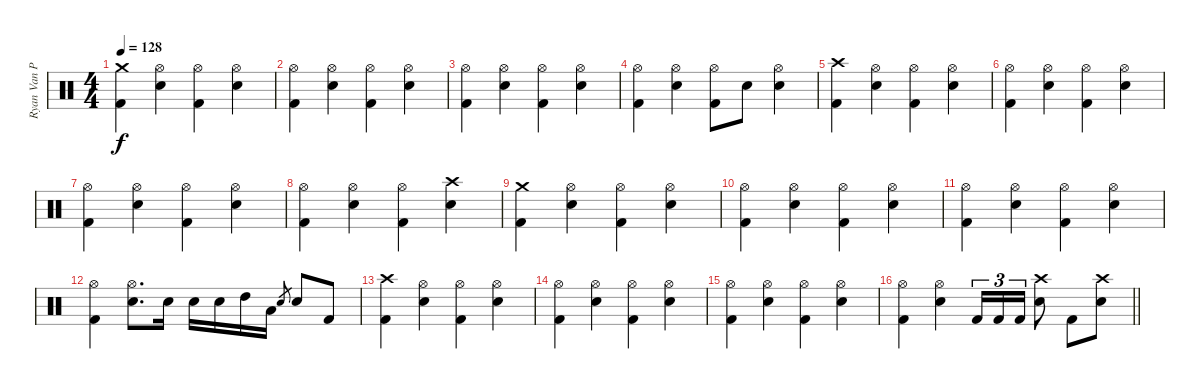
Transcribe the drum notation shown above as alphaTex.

\track ("Ryan Van Poederooyen" "Ryan Van P") {instrument percussion}
\staff {score}
\articulation defaults
\ts (4 4)
\tempo 128
\clef neutral
\ks c
("Crash medium (hit)" "Kick (hit) 2").4{dy f} ("Hi-Hat (open)" "Electric Snare (hit)").4 ("Hi-Hat (open)" "Kick (hit) 2").4 ("Hi-Hat (open)" "Electric Snare (hit)").4 |
("Hi-Hat (open)" "Kick (hit) 2").4 ("Hi-Hat (open)" "Electric Snare (hit)").4 ("Hi-Hat (open)" "Kick (hit) 2").4 ("Hi-Hat (open)" "Electric Snare (hit)").4 |
("Hi-Hat (open)" "Kick (hit) 2").4 ("Hi-Hat (open)" "Electric Snare (hit)").4 ("Hi-Hat (open)" "Kick (hit) 2").4 ("Hi-Hat (open)" "Electric Snare (hit)").4 |
("Hi-Hat (open)" "Kick (hit) 2").4 ("Hi-Hat (open)" "Electric Snare (hit)").4 ("Hi-Hat (open)" "Kick (hit) 2").8 "Electric Snare (hit)".8 ("Hi-Hat (open)" "Electric Snare (hit)").4 |
("Crash high (hit)" "Kick (hit) 2").4 ("Hi-Hat (open)" "Electric Snare (hit)").4 ("Hi-Hat (open)" "Kick (hit) 2").4 ("Hi-Hat (open)" "Electric Snare (hit)").4 |
("Hi-Hat (open)" "Kick (hit) 2").4 ("Hi-Hat (open)" "Electric Snare (hit)").4 ("Hi-Hat (open)" "Kick (hit) 2").4 ("Hi-Hat (open)" "Electric Snare (hit)").4 |
("Hi-Hat (open)" "Kick (hit) 2").4 ("Hi-Hat (open)" "Electric Snare (hit)").4 ("Hi-Hat (open)" "Kick (hit) 2").4 ("Hi-Hat (open)" "Electric Snare (hit)").4 |
("Hi-Hat (open)" "Kick (hit) 2").4 ("Hi-Hat (open)" "Electric Snare (hit)").4 ("Hi-Hat (open)" "Kick (hit) 2").4 ("Crash high (hit)" "Electric Snare (hit)").4 |
("Crash medium (hit)" "Kick (hit) 2").4 ("Hi-Hat (open)" "Electric Snare (hit)").4 ("Hi-Hat (open)" "Kick (hit) 2").4 ("Hi-Hat (open)" "Electric Snare (hit)").4 |
("Hi-Hat (open)" "Kick (hit) 2").4 ("Hi-Hat (open)" "Electric Snare (hit)").4 ("Hi-Hat (open)" "Kick (hit) 2").4 ("Hi-Hat (open)" "Electric Snare (hit)").4 |
("Hi-Hat (open)" "Kick (hit) 2").4 ("Hi-Hat (open)" "Electric Snare (hit)").4 ("Hi-Hat (open)" "Kick (hit) 2").4 ("Hi-Hat (open)" "Electric Snare (hit)").4 |
("Hi-Hat (open)" "Kick (hit) 2").4 ("Hi-Hat (open)" "Electric Snare (hit)").8{d} "Electric Snare (hit)".16 "Electric Snare (hit)".16 "Electric Snare (hit)".16 "High Tom (hit)".16 "Low Tom (hit)".16 "Electric Snare (hit)".8{gr} "Electric Snare (hit)".8 "Kick (hit) 2".8 |
("Crash high (hit)" "Kick (hit) 2").4 ("Hi-Hat (open)" "Electric Snare (hit)").4 ("Hi-Hat (open)" "Kick (hit) 2").4 ("Hi-Hat (open)" "Electric Snare (hit)").4 |
("Hi-Hat (open)" "Kick (hit) 2").4 ("Hi-Hat (open)" "Electric Snare (hit)").4 ("Hi-Hat (open)" "Kick (hit) 2").4 ("Hi-Hat (open)" "Electric Snare (hit)").4 |
("Hi-Hat (open)" "Kick (hit) 2").4 ("Hi-Hat (open)" "Electric Snare (hit)").4 ("Hi-Hat (open)" "Kick (hit) 2").4 ("Hi-Hat (open)" "Electric Snare (hit)").4 |
\barLineRight lightlight
("Hi-Hat (open)" "Kick (hit) 2").4 ("Hi-Hat (open)" "Electric Snare (hit)").4 "Kick (hit) 2".16{tu (3 2)} "Kick (hit) 2".16{tu (3 2)} "Kick (hit) 2".16{tu (3 2)} ("Crash high (hit)" "Electric Snare (hit)").8 "Kick (hit) 2".8 ("Crash high (hit)" "Electric Snare (hit)").8
